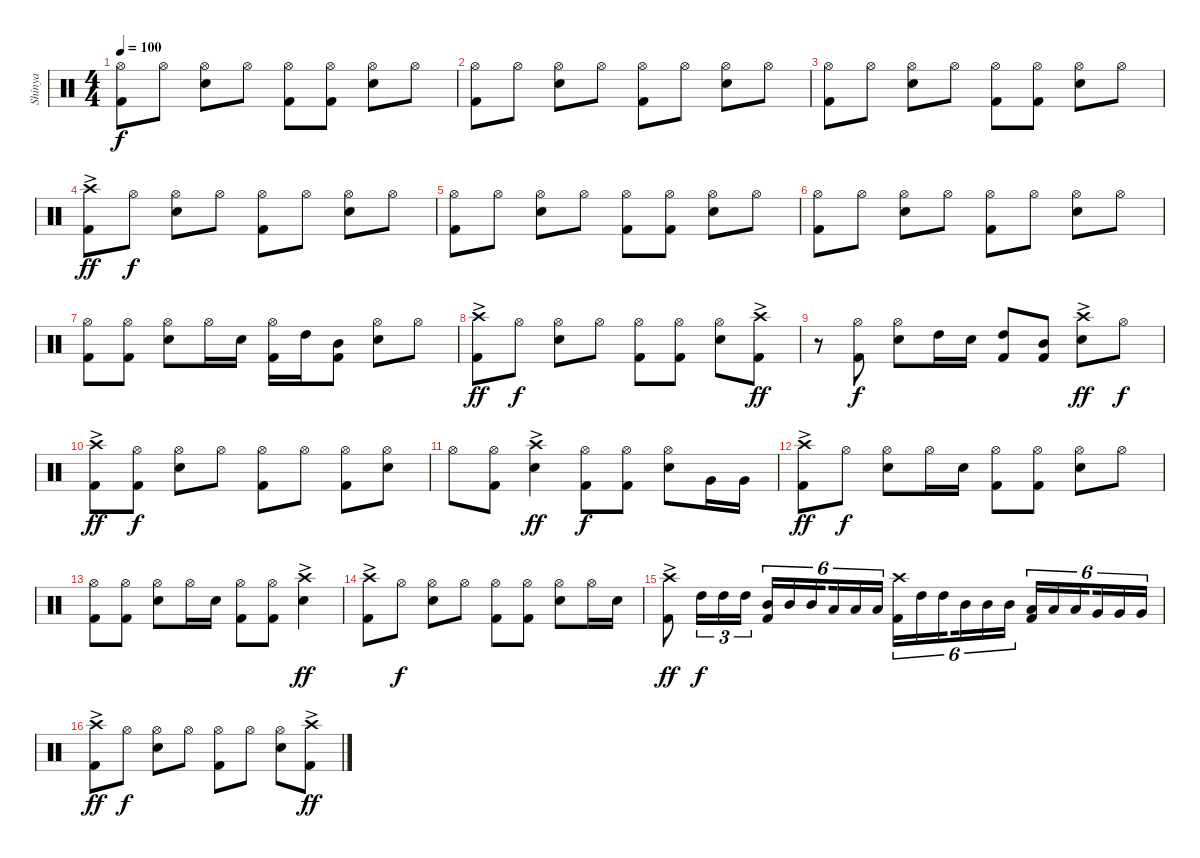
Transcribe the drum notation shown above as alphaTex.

\track ("Shinya" "Shinya") {instrument percussion}
\staff {score}
\articulation defaults
\ts (4 4)
\tempo 100
\clef neutral
\ks c
("Hi-Hat (open)" "Kick (hit) 2").8{dy f} "Hi-Hat (open)".8 ("Hi-Hat (open)" "Snare (hit) 2").8 "Hi-Hat (open)".8 ("Hi-Hat (open)" "Kick (hit) 2").8 ("Hi-Hat (open)" "Kick (hit) 2").8 ("Hi-Hat (open)" "Snare (hit) 2").8 "Hi-Hat (open)".8 |
("Hi-Hat (open)" "Kick (hit) 2").8 "Hi-Hat (open)".8 ("Hi-Hat (open)" "Snare (hit) 2").8 "Hi-Hat (open)".8 ("Hi-Hat (open)" "Kick (hit) 2").8 "Hi-Hat (open)".8 ("Hi-Hat (open)" "Snare (hit) 2").8 "Hi-Hat (open)".8 |
("Hi-Hat (open)" "Kick (hit) 2").8 "Hi-Hat (open)".8 ("Hi-Hat (open)" "Snare (hit) 2").8 "Hi-Hat (open)".8 ("Hi-Hat (open)" "Kick (hit) 2").8 ("Hi-Hat (open)" "Kick (hit) 2").8 ("Hi-Hat (open)" "Snare (hit) 2").8 "Hi-Hat (open)".8 |
("Crash high (hit)"{ac} "Kick (hit) 2").8{dy ff} "Hi-Hat (open)".8{dy f} ("Hi-Hat (open)" "Snare (hit) 2").8 "Hi-Hat (open)".8 ("Hi-Hat (open)" "Kick (hit) 2").8 "Hi-Hat (open)".8 ("Hi-Hat (open)" "Snare (hit) 2").8 "Hi-Hat (open)".8 |
("Hi-Hat (open)" "Kick (hit) 2").8 "Hi-Hat (open)".8 ("Hi-Hat (open)" "Snare (hit) 2").8 "Hi-Hat (open)".8 ("Hi-Hat (open)" "Kick (hit) 2").8 ("Hi-Hat (open)" "Kick (hit) 2").8 ("Hi-Hat (open)" "Snare (hit) 2").8 "Hi-Hat (open)".8 |
("Hi-Hat (open)" "Kick (hit) 2").8 "Hi-Hat (open)".8 ("Hi-Hat (open)" "Snare (hit) 2").8 "Hi-Hat (open)".8 ("Hi-Hat (open)" "Kick (hit) 2").8 "Hi-Hat (open)".8 ("Hi-Hat (open)" "Snare (hit) 2").8 "Hi-Hat (open)".8 |
("Hi-Hat (open)" "Kick (hit) 2").8 ("Hi-Hat (open)" "Kick (hit) 2").8 ("Hi-Hat (open)" "Snare (hit) 2").8 "Hi-Hat (open)".16 "Snare (hit) 2".16 ("Hi-Hat (open)" "Kick (hit) 2").16 "High Tom (hit)".16 ("Mid Tom (hit)" "Kick (hit) 2").8 ("Hi-Hat (open)" "Snare (hit) 2").8 "Hi-Hat (open)".8 |
("Crash high (hit)"{ac} "Kick (hit) 2").8{dy ff} "Hi-Hat (open)".8{dy f} ("Hi-Hat (open)" "Snare (hit) 2").8 "Hi-Hat (open)".8 ("Hi-Hat (open)" "Kick (hit) 2").8 ("Hi-Hat (open)" "Kick (hit) 2").8 ("Hi-Hat (open)" "Snare (hit) 2").8 ("Crash high (hit)"{ac} "Kick (hit) 2").8{dy ff} |
r.8 ("Hi-Hat (open)" "Kick (hit) 2").8{dy f} ("Hi-Hat (open)" "Snare (hit) 2").8 "High Tom (hit)".16 "Snare (hit) 2".16 ("High Tom (hit)" "Kick (hit) 2").8 ("Mid Tom (hit)" "Kick (hit) 2").8 ("Crash high (hit)"{ac} "Snare (hit) 2").8{dy ff} "Hi-Hat (open)".8{dy f} |
("Crash high (hit)"{ac} "Kick (hit) 2").8{dy ff} ("Hi-Hat (open)" "Kick (hit) 2").8{dy f} ("Hi-Hat (open)" "Snare (hit) 2").8 "Hi-Hat (open)".8 ("Hi-Hat (open)" "Kick (hit) 2").8 "Hi-Hat (open)".8 ("Hi-Hat (open)" "Kick (hit) 2").8 ("Hi-Hat (open)" "Snare (hit) 2").8 |
"Hi-Hat (open)".8 ("Hi-Hat (open)" "Kick (hit) 2").8 ("Crash high (hit)"{ac} "Snare (hit) 2").4{dy ff} ("Hi-Hat (open)" "Kick (hit) 2").8{dy f} ("Hi-Hat (open)" "Kick (hit) 2").8 ("Hi-Hat (open)" "Snare (hit) 2").8 "Very Low Tom (hit)".16 "Very Low Tom (hit)".16 |
("Crash high (hit)"{ac} "Kick (hit) 2").8{dy ff} "Hi-Hat (open)".8{dy f} ("Hi-Hat (open)" "Snare (hit) 2").8 "Hi-Hat (open)".16 "Snare (hit) 2".16 ("Hi-Hat (open)" "Kick (hit) 2").8 ("Hi-Hat (open)" "Kick (hit) 2").8 ("Hi-Hat (open)" "Snare (hit) 2").8 "Hi-Hat (open)".8 |
("Hi-Hat (open)" "Kick (hit) 2").8 ("Hi-Hat (open)" "Kick (hit) 2").8 ("Hi-Hat (open)" "Snare (hit) 2").8 "Hi-Hat (open)".16 "Snare (hit) 2".16 ("Hi-Hat (open)" "Kick (hit) 2").8 ("Hi-Hat (open)" "Kick (hit) 2").8 ("Crash high (hit)"{ac} "Snare (hit) 2").4{dy ff} |
("Crash high (hit)"{ac} "Kick (hit) 2").8 "Hi-Hat (open)".8{dy f} ("Hi-Hat (open)" "Snare (hit) 2").8 "Hi-Hat (open)".8 ("Hi-Hat (open)" "Kick (hit) 2").8 ("Hi-Hat (open)" "Kick (hit) 2").8 ("Hi-Hat (open)" "Snare (hit) 2").8 "Hi-Hat (open)".16 "Snare (hit) 2".16 |
("Crash high (hit)"{ac} "Kick (hit) 2").8{dy ff} "High Tom (hit)".16{tu (3 2) dy f} "High Tom (hit)".16{tu (3 2)} "High Tom (hit)".16{tu (3 2)} ("Mid Tom (hit)" "Kick (hit) 2").16{tu (6 4)} "Mid Tom (hit)".16{tu (6 4)} "Mid Tom (hit)".16{tu (6 4) beam splitsecondary} "Low Tom (hit)".16{tu (6 4)} "Low Tom (hit)".16{tu (6 4)} "Low Tom (hit)".16{tu (6 4)} ("Crash high (hit)" "Kick (hit) 2").16{tu (6 4)} "High Tom (hit)".16{tu (6 4)} "High Tom (hit)".16{tu (6 4) beam splitsecondary} "Mid Tom (hit)".16{tu (6 4)} "Mid Tom (hit)".16{tu (6 4)} "Mid Tom (hit)".16{tu (6 4)} ("Low Tom (hit)" "Kick (hit) 2").16{tu (6 4)} "Low Tom (hit)".16{tu (6 4)} "Low Tom (hit)".16{tu (6 4) beam splitsecondary} "Very Low Tom (hit)".16{tu (6 4)} "Very Low Tom (hit)".16{tu (6 4)} "Very Low Tom (hit)".16{tu (6 4)} |
("Crash high (hit)"{ac} "Kick (hit) 2").8{dy ff} "Hi-Hat (open)".8{dy f} ("Hi-Hat (open)" "Snare (hit) 2").8 "Hi-Hat (open)".8 ("Hi-Hat (open)" "Kick (hit) 2").8 "Hi-Hat (open)".8 ("Hi-Hat (open)" "Snare (hit) 2").8 ("Crash high (hit)"{ac} "Kick (hit) 2").8{dy ff}
